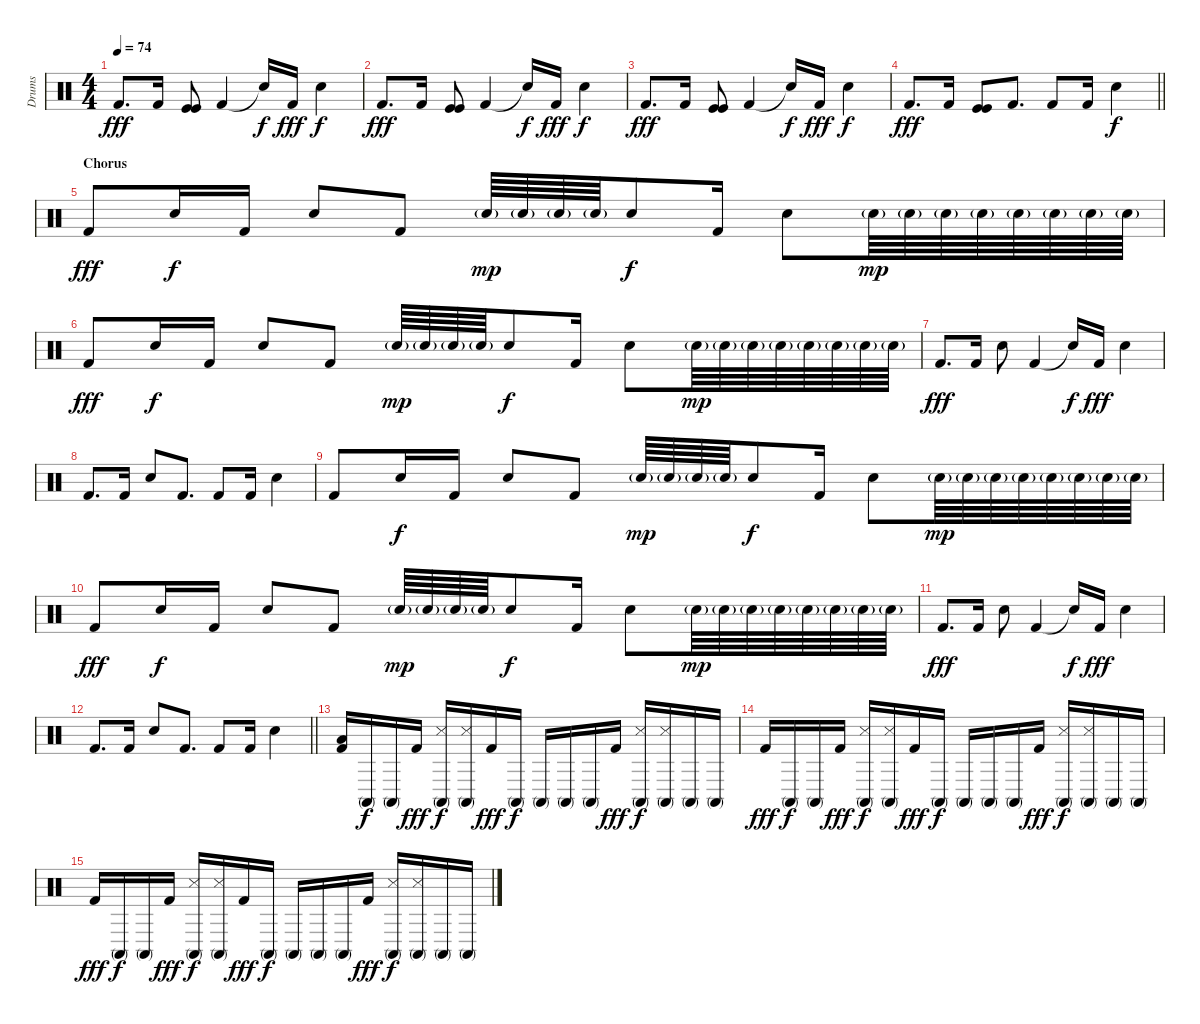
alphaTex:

\track ("Drums" "Drums") {instrument percussion}
\staff {score}
\articulation defaults
\ts (4 4)
\tempo 74
\clef neutral
\ks c "Kick (hit) 2".8{d dy fff} "Kick (hit) 2".16
("Kick (hit)" "Kick (hit)").8 "Kick (hit) 2".4 "Snare (hit)"{t}.16{dy f} "Kick (hit) 2".16{dy fff} "Snare (hit) 2".4{dy f} |
"Kick (hit) 2".8{d dy fff} "Kick (hit) 2".16 ("Kick (hit)" "Kick (hit)").8 "Kick (hit) 2".4 "Snare (hit)"{t}.16{dy f} "Kick (hit) 2".16{dy fff} "Snare (hit) 2".4{dy f} |
"Kick (hit) 2".8{d dy fff} "Kick (hit) 2".16 ("Kick (hit)" "Kick (hit)").8 "Kick (hit) 2".4 "Snare (hit)"{t}.16{dy f} "Kick (hit) 2".16{dy fff} "Snare (hit) 2".4{dy f} |
\barLineRight lightlight "Kick (hit) 2".8{d dy fff} "Kick (hit) 2".16
("Kick (hit)" "Kick (hit)").8 "Kick (hit) 2".8{d} "Kick (hit) 2".8 "Kick (hit) 2".16 "Snare (hit) 2".4{dy f} |
\section ("" "Chorus")
"Kick (hit) 2".8{dy fff} "Snare (hit) 2".16{dy f} "Kick (hit) 2".16 "Snare (hit) 2".8 "Kick (hit) 2".8 "Electric Snare (hit)"{g}.64{dy mp} "Electric Snare (hit)"{g}.64 "Electric Snare (hit)"{g}.64 "Electric Snare (hit)"{g}.64 "Snare (hit) 2".8{dy f} "Kick (hit) 2".16 "Snare (hit) 2".8 "Electric Snare (hit)"{g}.64{dy mp} "Electric Snare (hit)"{g}.64 "Electric Snare (hit)"{g}.64 "Electric Snare (hit)"{g}.64 "Electric Snare (hit)"{g}.64 "Electric Snare (hit)"{g}.64 "Electric Snare (hit)"{g}.64 "Electric Snare (hit)"{g}.64 |
"Kick (hit) 2".8{dy fff} "Snare (hit) 2".16{dy f} "Kick (hit) 2".16 "Snare (hit) 2".8 "Kick (hit) 2".8 "Electric Snare (hit)"{g}.64{dy mp} "Electric Snare (hit)"{g}.64 "Electric Snare (hit)"{g}.64 "Electric Snare (hit)"{g}.64 "Snare (hit) 2".8{dy f} "Kick (hit) 2".16 "Snare (hit) 2".8 "Electric Snare (hit)"{g}.64{dy mp} "Electric Snare (hit)"{g}.64 "Electric Snare (hit)"{g}.64 "Electric Snare (hit)"{g}.64 "Electric Snare (hit)"{g}.64 "Electric Snare (hit)"{g}.64 "Electric Snare (hit)"{g}.64 "Electric Snare (hit)"{g}.64 |
"Kick (hit) 2".8{d dy fff} "Kick (hit) 2".16 "Snare (hit) 2".8 "Kick (hit) 2".4 "Snare (hit)"{t}.16{dy f} "Kick (hit) 2".16{dy fff} "Snare (hit) 2".4 |
"Kick (hit) 2".8{d} "Kick (hit) 2".16 "Snare (hit) 2".8 "Kick (hit) 2".8{d} "Kick (hit) 2".8 "Kick (hit) 2".16 "Snare (hit) 2".4 |
"Kick (hit) 2".8 "Snare (hit) 2".16{dy f} "Kick (hit) 2".16 "Snare (hit) 2".8 "Kick (hit) 2".8 "Electric Snare (hit)"{g}.64{dy mp} "Electric Snare (hit)"{g}.64 "Electric Snare (hit)"{g}.64 "Electric Snare (hit)"{g}.64 "Snare (hit) 2".8{dy f} "Kick (hit) 2".16 "Snare (hit) 2".8 "Electric Snare (hit)"{g}.64{dy mp} "Electric Snare (hit)"{g}.64 "Electric Snare (hit)"{g}.64 "Electric Snare (hit)"{g}.64 "Electric Snare (hit)"{g}.64 "Electric Snare (hit)"{g}.64 "Electric Snare (hit)"{g}.64 "Electric Snare (hit)"{g}.64 |
"Kick (hit) 2".8{dy fff} "Snare (hit) 2".16{dy f} "Kick (hit) 2".16 "Snare (hit) 2".8 "Kick (hit) 2".8 "Electric Snare (hit)"{g}.64{dy mp} "Electric Snare (hit)"{g}.64 "Electric Snare (hit)"{g}.64 "Electric Snare (hit)"{g}.64 "Snare (hit) 2".8{dy f} "Kick (hit) 2".16 "Snare (hit) 2".8 "Electric Snare (hit)"{g}.64{dy mp} "Electric Snare (hit)"{g}.64 "Electric Snare (hit)"{g}.64 "Electric Snare (hit)"{g}.64 "Electric Snare (hit)"{g}.64 "Electric Snare (hit)"{g}.64 "Electric Snare (hit)"{g}.64 "Electric Snare (hit)"{g}.64 |
"Kick (hit) 2".8{d dy fff} "Kick (hit) 2".16 "Snare (hit) 2".8 "Kick (hit) 2".4 "Snare (hit)"{t}.16{dy f} "Kick (hit) 2".16{dy fff} "Snare (hit) 2".4 |
\barLineRight lightlight "Kick (hit) 2".8{d} "Kick (hit) 2".16 "Snare (hit) 2".8 "Kick (hit) 2".8{d} "Kick (hit) 2".8 "Kick (hit) 2".16 "Snare (hit) 2".4
|
("Low Floor Tom (hit)" "Kick (hit) 2").16{balance 8} "Conga high (mute)".16{dy f balance 16} "Conga high (mute)".16{balance 10} "Kick (hit) 2".16{dy fff balance 16} ("Snare (side stick) 3" "Conga high (mute)").16{dy f balance 0} ("Snare (side stick) 3" "Conga high (mute)").16{balance 16} "Kick (hit) 2".16{dy fff balance 0} "Conga high (mute)".16{dy f balance 16} "Conga high (mute)".16{balance 0} "Conga high (mute)".16{balance 16} "Conga high (mute)".16{balance 0} "Kick (hit) 2".16{dy fff balance 16} ("Snare (side stick) 3" "Conga high (mute)").16{dy f balance 0} ("Snare (side stick) 3" "Conga high (mute)").16{balance 16} "Conga high (mute)".16{balance 0} "Conga high (mute)".16{balance 16} |
"Kick (hit) 2".16{dy fff volume 0 balance 0} "Conga high (mute)".16{dy f balance 16} "Conga high (mute)".16{balance 10} "Kick (hit) 2".16{dy fff balance 16} ("Snare (side stick) 3" "Conga high (mute)").16{dy f balance 0} ("Snare (side stick) 3" "Conga high (mute)").16{balance 16} "Kick (hit) 2".16{dy fff balance 0} "Conga high (mute)".16{dy f balance 16} "Conga high (mute)".16{balance 0} "Conga high (mute)".16{balance 16} "Conga high (mute)".16{balance 0} "Kick (hit) 2".16{dy fff balance 16} ("Snare (side stick) 3" "Conga high (mute)").16{dy f balance 0} ("Snare (side stick) 3" "Conga high (mute)").16{balance 16} "Conga high (mute)".16{balance 0} "Conga high (mute)".16{balance 16} |
"Kick (hit) 2".16{dy fff balance 0} "Conga high (mute)".16{dy f balance 16} "Conga high (mute)".16{balance 10} "Kick (hit) 2".16{dy fff balance 16} ("Snare (side stick) 3" "Conga high (mute)").16{dy f balance 0} ("Snare (side stick) 3" "Conga high (mute)").16{balance 16} "Kick (hit) 2".16{dy fff balance 0} "Conga high (mute)".16{dy f balance 16} "Conga high (mute)".16{balance 0} "Conga high (mute)".16{balance 16} "Conga high (mute)".16{balance 0} "Kick (hit) 2".16{dy fff balance 16} ("Snare (side stick) 3" "Conga high (mute)").16{dy f balance 0} ("Snare (side stick) 3" "Conga high (mute)").16{balance 16} "Conga high (mute)".16{balance 0} "Conga high (mute)".16{balance 16}
